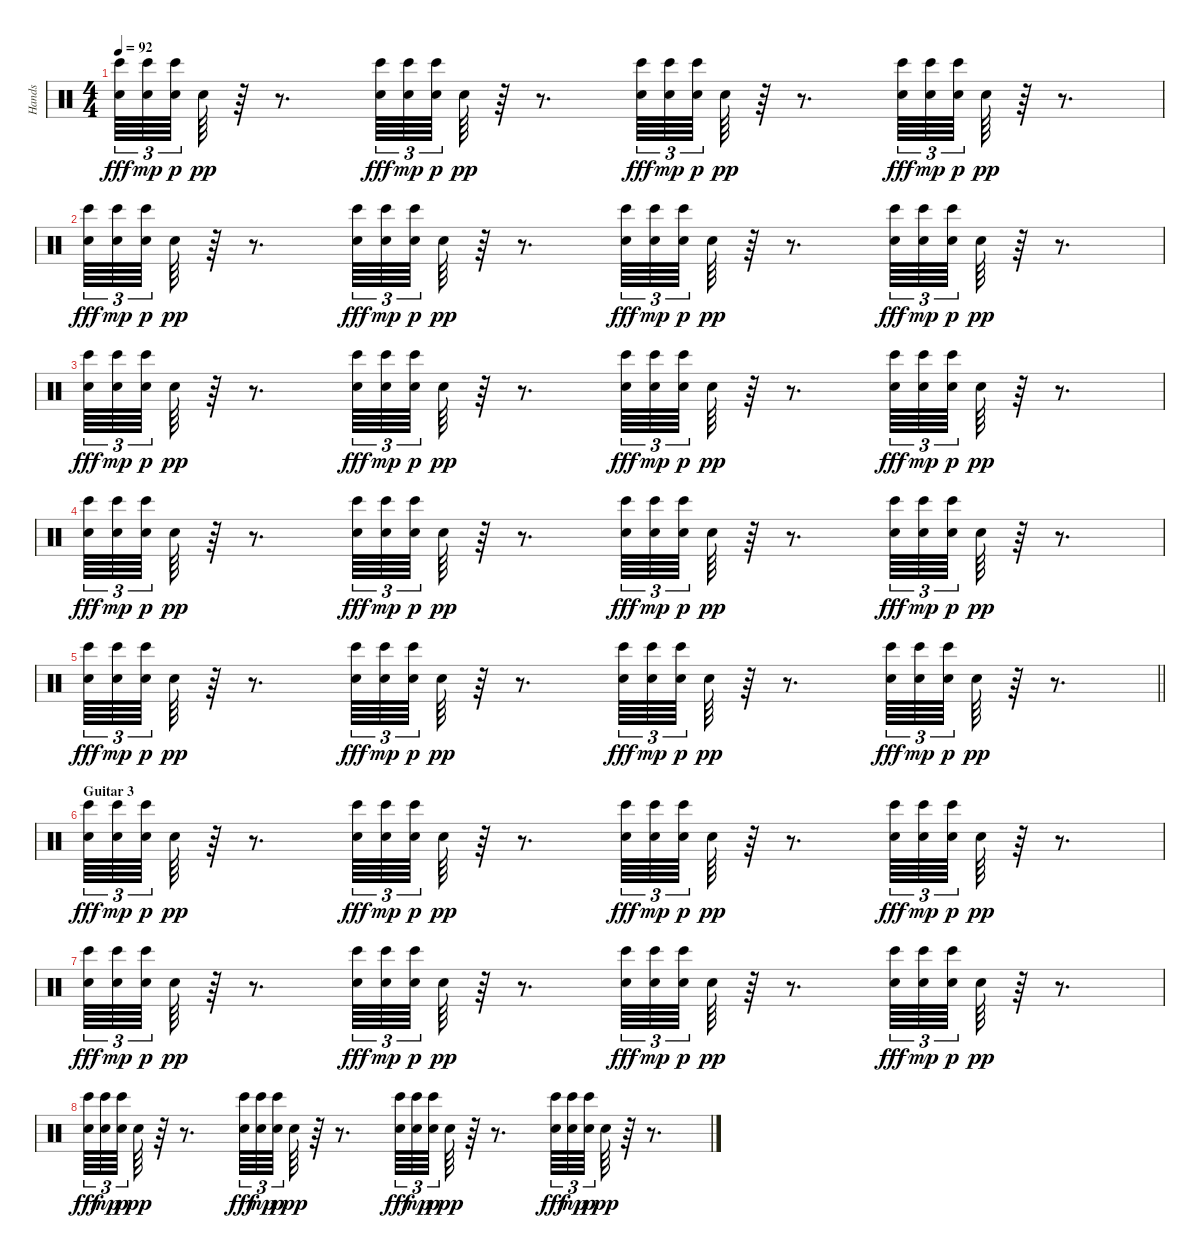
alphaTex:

\track ("Hands" "Hands") {instrument percussion}
\staff {score}
\articulation defaults
\ts (4 4)
\tempo 92
\clef neutral
\ks c
("Bongo High (hit)" "Hand Clap (hit)").64{tu (3 2) dy fff} ("Bongo High (hit)" "Hand Clap (hit)").64{tu (3 2) dy mp} ("Bongo High (hit)" "Hand Clap (hit)").64{tu (3 2) dy p} "Hand Clap (hit)".64{dy pp} r.64 r.8{d} ("Bongo High (hit)" "Hand Clap (hit)").64{tu (3 2) dy fff} ("Bongo High (hit)" "Hand Clap (hit)").64{tu (3 2) dy mp} ("Bongo High (hit)" "Hand Clap (hit)").64{tu (3 2) dy p} "Hand Clap (hit)".64{dy pp} r.64 r.8{d} ("Bongo High (hit)" "Hand Clap (hit)").64{tu (3 2) dy fff} ("Bongo High (hit)" "Hand Clap (hit)").64{tu (3 2) dy mp} ("Bongo High (hit)" "Hand Clap (hit)").64{tu (3 2) dy p} "Hand Clap (hit)".64{dy pp} r.64 r.8{d} ("Bongo High (hit)" "Hand Clap (hit)").64{tu (3 2) dy fff} ("Bongo High (hit)" "Hand Clap (hit)").64{tu (3 2) dy mp} ("Bongo High (hit)" "Hand Clap (hit)").64{tu (3 2) dy p} "Hand Clap (hit)".64{dy pp} r.64 r.8{d} |
("Bongo High (hit)" "Hand Clap (hit)").64{tu (3 2) dy fff} ("Bongo High (hit)" "Hand Clap (hit)").64{tu (3 2) dy mp} ("Bongo High (hit)" "Hand Clap (hit)").64{tu (3 2) dy p} "Hand Clap (hit)".64{dy pp} r.64 r.8{d} ("Bongo High (hit)" "Hand Clap (hit)").64{tu (3 2) dy fff} ("Bongo High (hit)" "Hand Clap (hit)").64{tu (3 2) dy mp} ("Bongo High (hit)" "Hand Clap (hit)").64{tu (3 2) dy p} "Hand Clap (hit)".64{dy pp} r.64 r.8{d} ("Bongo High (hit)" "Hand Clap (hit)").64{tu (3 2) dy fff} ("Bongo High (hit)" "Hand Clap (hit)").64{tu (3 2) dy mp} ("Bongo High (hit)" "Hand Clap (hit)").64{tu (3 2) dy p} "Hand Clap (hit)".64{dy pp} r.64 r.8{d} ("Bongo High (hit)" "Hand Clap (hit)").64{tu (3 2) dy fff} ("Bongo High (hit)" "Hand Clap (hit)").64{tu (3 2) dy mp} ("Bongo High (hit)" "Hand Clap (hit)").64{tu (3 2) dy p} "Hand Clap (hit)".64{dy pp} r.64 r.8{d} |
("Bongo High (hit)" "Hand Clap (hit)").64{tu (3 2) dy fff} ("Bongo High (hit)" "Hand Clap (hit)").64{tu (3 2) dy mp} ("Bongo High (hit)" "Hand Clap (hit)").64{tu (3 2) dy p} "Hand Clap (hit)".64{dy pp} r.64 r.8{d} ("Bongo High (hit)" "Hand Clap (hit)").64{tu (3 2) dy fff} ("Bongo High (hit)" "Hand Clap (hit)").64{tu (3 2) dy mp} ("Bongo High (hit)" "Hand Clap (hit)").64{tu (3 2) dy p} "Hand Clap (hit)".64{dy pp} r.64 r.8{d} ("Bongo High (hit)" "Hand Clap (hit)").64{tu (3 2) dy fff} ("Bongo High (hit)" "Hand Clap (hit)").64{tu (3 2) dy mp} ("Bongo High (hit)" "Hand Clap (hit)").64{tu (3 2) dy p} "Hand Clap (hit)".64{dy pp} r.64 r.8{d} ("Bongo High (hit)" "Hand Clap (hit)").64{tu (3 2) dy fff} ("Bongo High (hit)" "Hand Clap (hit)").64{tu (3 2) dy mp} ("Bongo High (hit)" "Hand Clap (hit)").64{tu (3 2) dy p} "Hand Clap (hit)".64{dy pp} r.64 r.8{d} |
("Bongo High (hit)" "Hand Clap (hit)").64{tu (3 2) dy fff} ("Bongo High (hit)" "Hand Clap (hit)").64{tu (3 2) dy mp} ("Bongo High (hit)" "Hand Clap (hit)").64{tu (3 2) dy p} "Hand Clap (hit)".64{dy pp} r.64 r.8{d} ("Bongo High (hit)" "Hand Clap (hit)").64{tu (3 2) dy fff} ("Bongo High (hit)" "Hand Clap (hit)").64{tu (3 2) dy mp} ("Bongo High (hit)" "Hand Clap (hit)").64{tu (3 2) dy p} "Hand Clap (hit)".64{dy pp} r.64 r.8{d} ("Bongo High (hit)" "Hand Clap (hit)").64{tu (3 2) dy fff} ("Bongo High (hit)" "Hand Clap (hit)").64{tu (3 2) dy mp} ("Bongo High (hit)" "Hand Clap (hit)").64{tu (3 2) dy p} "Hand Clap (hit)".64{dy pp} r.64 r.8{d} ("Bongo High (hit)" "Hand Clap (hit)").64{tu (3 2) dy fff} ("Bongo High (hit)" "Hand Clap (hit)").64{tu (3 2) dy mp} ("Bongo High (hit)" "Hand Clap (hit)").64{tu (3 2) dy p} "Hand Clap (hit)".64{dy pp} r.64 r.8{d} |
\barLineRight lightlight
("Bongo High (hit)" "Hand Clap (hit)").64{tu (3 2) dy fff} ("Bongo High (hit)" "Hand Clap (hit)").64{tu (3 2) dy mp} ("Bongo High (hit)" "Hand Clap (hit)").64{tu (3 2) dy p} "Hand Clap (hit)".64{dy pp} r.64 r.8{d} ("Bongo High (hit)" "Hand Clap (hit)").64{tu (3 2) dy fff} ("Bongo High (hit)" "Hand Clap (hit)").64{tu (3 2) dy mp} ("Bongo High (hit)" "Hand Clap (hit)").64{tu (3 2) dy p} "Hand Clap (hit)".64{dy pp} r.64 r.8{d} ("Bongo High (hit)" "Hand Clap (hit)").64{tu (3 2) dy fff} ("Bongo High (hit)" "Hand Clap (hit)").64{tu (3 2) dy mp} ("Bongo High (hit)" "Hand Clap (hit)").64{tu (3 2) dy p} "Hand Clap (hit)".64{dy pp} r.64 r.8{d} ("Bongo High (hit)" "Hand Clap (hit)").64{tu (3 2) dy fff} ("Bongo High (hit)" "Hand Clap (hit)").64{tu (3 2) dy mp} ("Bongo High (hit)" "Hand Clap (hit)").64{tu (3 2) dy p} "Hand Clap (hit)".64{dy pp} r.64 r.8{d} |
\section ("" "Guitar 3")
("Bongo High (hit)" "Hand Clap (hit)").64{tu (3 2) dy fff} ("Bongo High (hit)" "Hand Clap (hit)").64{tu (3 2) dy mp} ("Bongo High (hit)" "Hand Clap (hit)").64{tu (3 2) dy p} "Hand Clap (hit)".64{dy pp} r.64 r.8{d} ("Bongo High (hit)" "Hand Clap (hit)").64{tu (3 2) dy fff} ("Bongo High (hit)" "Hand Clap (hit)").64{tu (3 2) dy mp} ("Bongo High (hit)" "Hand Clap (hit)").64{tu (3 2) dy p} "Hand Clap (hit)".64{dy pp} r.64 r.8{d} ("Bongo High (hit)" "Hand Clap (hit)").64{tu (3 2) dy fff} ("Bongo High (hit)" "Hand Clap (hit)").64{tu (3 2) dy mp} ("Bongo High (hit)" "Hand Clap (hit)").64{tu (3 2) dy p} "Hand Clap (hit)".64{dy pp} r.64 r.8{d} ("Bongo High (hit)" "Hand Clap (hit)").64{tu (3 2) dy fff} ("Bongo High (hit)" "Hand Clap (hit)").64{tu (3 2) dy mp} ("Bongo High (hit)" "Hand Clap (hit)").64{tu (3 2) dy p} "Hand Clap (hit)".64{dy pp} r.64 r.8{d} |
("Bongo High (hit)" "Hand Clap (hit)").64{tu (3 2) dy fff} ("Bongo High (hit)" "Hand Clap (hit)").64{tu (3 2) dy mp} ("Bongo High (hit)" "Hand Clap (hit)").64{tu (3 2) dy p} "Hand Clap (hit)".64{dy pp} r.64 r.8{d} ("Bongo High (hit)" "Hand Clap (hit)").64{tu (3 2) dy fff} ("Bongo High (hit)" "Hand Clap (hit)").64{tu (3 2) dy mp} ("Bongo High (hit)" "Hand Clap (hit)").64{tu (3 2) dy p} "Hand Clap (hit)".64{dy pp} r.64 r.8{d} ("Bongo High (hit)" "Hand Clap (hit)").64{tu (3 2) dy fff} ("Bongo High (hit)" "Hand Clap (hit)").64{tu (3 2) dy mp} ("Bongo High (hit)" "Hand Clap (hit)").64{tu (3 2) dy p} "Hand Clap (hit)".64{dy pp} r.64 r.8{d} ("Bongo High (hit)" "Hand Clap (hit)").64{tu (3 2) dy fff} ("Bongo High (hit)" "Hand Clap (hit)").64{tu (3 2) dy mp} ("Bongo High (hit)" "Hand Clap (hit)").64{tu (3 2) dy p} "Hand Clap (hit)".64{dy pp} r.64 r.8{d} |
("Bongo High (hit)" "Hand Clap (hit)").64{tu (3 2) dy fff} ("Bongo High (hit)" "Hand Clap (hit)").64{tu (3 2) dy mp} ("Bongo High (hit)" "Hand Clap (hit)").64{tu (3 2) dy p} "Hand Clap (hit)".64{dy pp} r.64 r.8{d} ("Bongo High (hit)" "Hand Clap (hit)").64{tu (3 2) dy fff} ("Bongo High (hit)" "Hand Clap (hit)").64{tu (3 2) dy mp} ("Bongo High (hit)" "Hand Clap (hit)").64{tu (3 2) dy p} "Hand Clap (hit)".64{dy pp} r.64 r.8{d} ("Bongo High (hit)" "Hand Clap (hit)").64{tu (3 2) dy fff} ("Bongo High (hit)" "Hand Clap (hit)").64{tu (3 2) dy mp} ("Bongo High (hit)" "Hand Clap (hit)").64{tu (3 2) dy p} "Hand Clap (hit)".64{dy pp} r.64 r.8{d} ("Bongo High (hit)" "Hand Clap (hit)").64{tu (3 2) dy fff} ("Bongo High (hit)" "Hand Clap (hit)").64{tu (3 2) dy mp} ("Bongo High (hit)" "Hand Clap (hit)").64{tu (3 2) dy p} "Hand Clap (hit)".64{dy pp} r.64 r.8{d}
